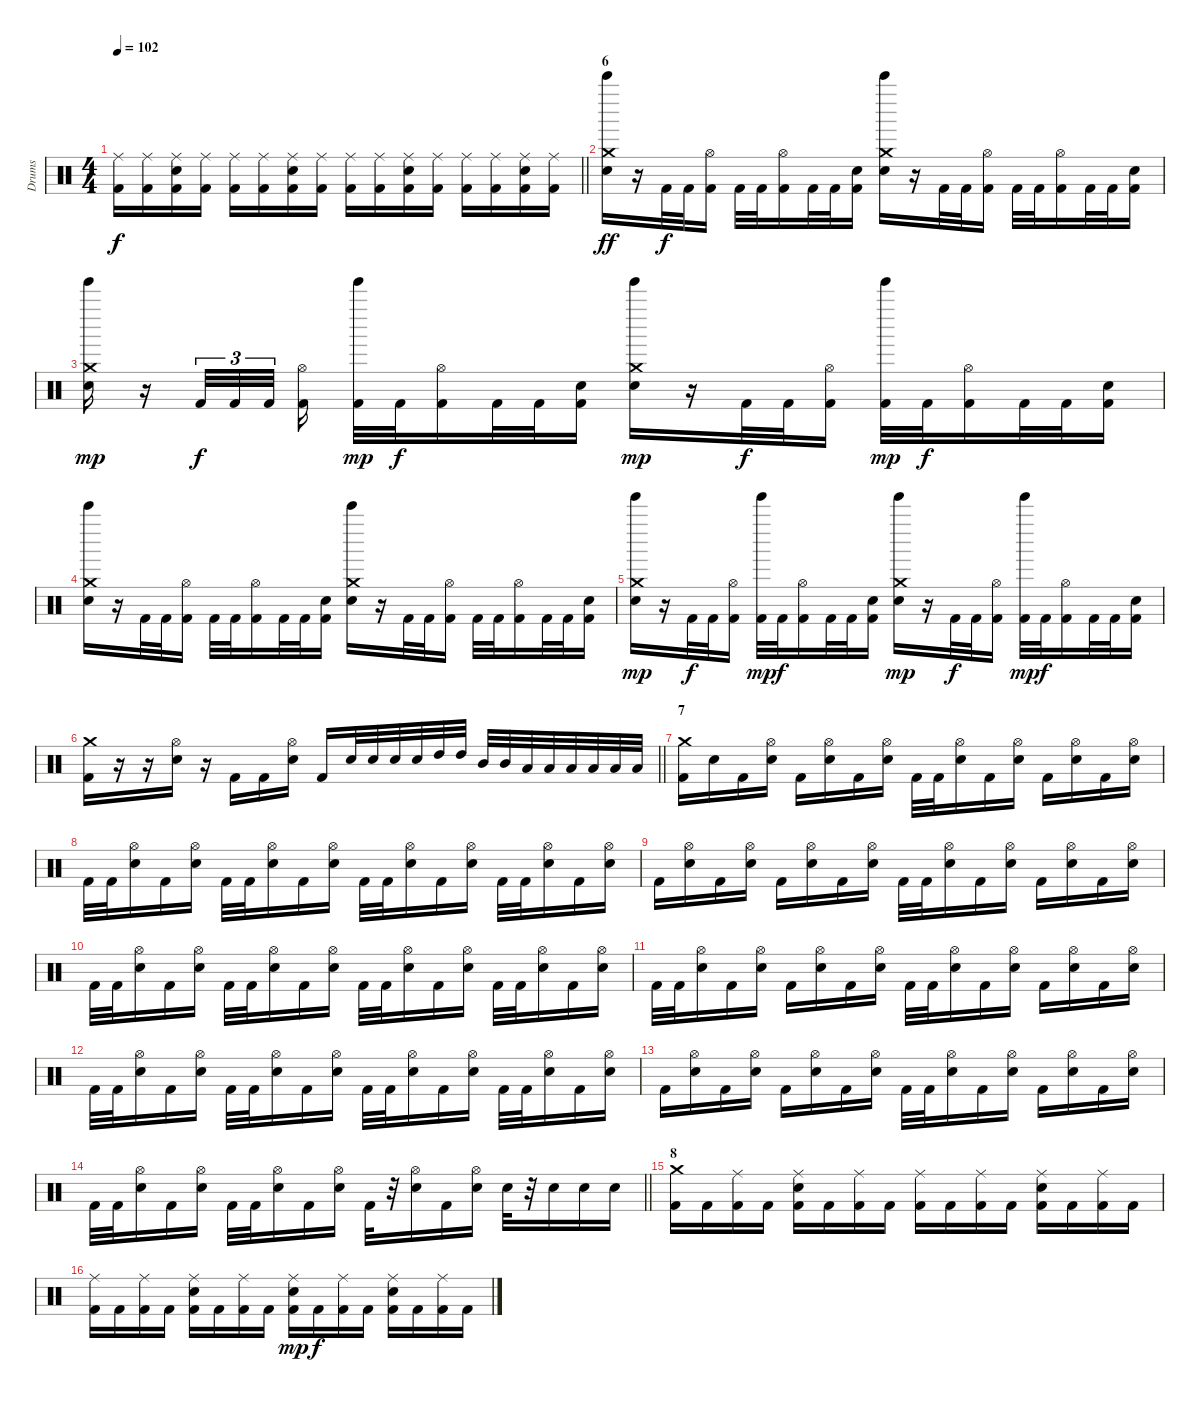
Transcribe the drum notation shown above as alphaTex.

\track ("Drums" "Drums") {instrument percussion}
\staff {score}
\articulation defaults
\ts (4 4)
\tempo 102
\clef neutral
\barLineRight lightlight
\ks c
("Ride (middle)" "Kick (hit) 2").16{dy f} ("Ride (middle)" "Kick (hit) 2").16 ("Ride (middle)" "Snare (hit) 2" "Kick (hit) 2").16 ("Ride (middle)" "Kick (hit) 2").16 ("Ride (middle)" "Kick (hit) 2").16 ("Ride (middle)" "Kick (hit) 2").16 ("Ride (middle)" "Snare (hit) 2" "Kick (hit) 2").16 ("Ride (middle)" "Kick (hit) 2").16 ("Ride (middle)" "Kick (hit) 2").16 ("Ride (middle)" "Kick (hit) 2").16 ("Ride (middle)" "Snare (hit) 2" "Kick (hit) 2").16 ("Ride (middle)" "Kick (hit) 2").16 ("Ride (middle)" "Kick (hit) 2").16 ("Ride (middle)" "Kick (hit) 2").16 ("Ride (middle)" "Snare (hit) 2" "Kick (hit) 2").16 ("Ride (middle)" "Kick (hit) 2").16 |
\section ("" "6")
("Crash medium (hit)" "Bell Tree (hit)" "Electric Snare (hit)").16{dy ff} r.16 "Kick (hit) 2".32{dy f} "Kick (hit) 2".32 ("Hi-Hat (open)" "Kick (hit) 2").16 "Kick (hit) 2".32 "Kick (hit) 2".32 ("Hi-Hat (open)" "Kick (hit) 2").16 "Kick (hit) 2".32 "Kick (hit) 2".32 ("Snare (hit) 2" "Kick (hit) 2").16 ("Crash medium (hit)" "Bell Tree (hit)" "Electric Snare (hit)").16 r.16 "Kick (hit) 2".32 "Kick (hit) 2".32 ("Hi-Hat (open)" "Kick (hit) 2").16 "Kick (hit) 2".32 "Kick (hit) 2".32 ("Hi-Hat (open)" "Kick (hit) 2").16 "Kick (hit) 2".32 "Kick (hit) 2".32 ("Snare (hit) 2" "Kick (hit) 2").16 |
("Crash medium (hit)" "Tinkle Bell (hit)" "Electric Snare (hit)").16{dy mp} r.16 "Kick (hit) 2".32{tu (3 2) dy f} "Kick (hit) 2".32{tu (3 2)} "Kick (hit) 2".32{tu (3 2) beam splitsecondary} ("Hi-Hat (open)" "Kick (hit) 2").16 ("Tinkle Bell (hit)" "Kick (hit) 2").32{dy mp} "Kick (hit) 2".32{dy f} ("Hi-Hat (open)" "Kick (hit) 2").16 "Kick (hit) 2".32 "Kick (hit) 2".32 ("Snare (hit) 2" "Kick (hit) 2").16 ("Crash medium (hit)" "Tinkle Bell (hit)" "Electric Snare (hit)").16{dy mp} r.16 "Kick (hit) 2".32{dy f} "Kick (hit) 2".32 ("Hi-Hat (open)" "Kick (hit) 2").16 ("Tinkle Bell (hit)" "Kick (hit) 2").32{dy mp} "Kick (hit) 2".32{dy f} ("Hi-Hat (open)" "Kick (hit) 2").16 "Kick (hit) 2".32 "Kick (hit) 2".32 ("Snare (hit) 2" "Kick (hit) 2").16 |
("Crash medium (hit)" "Bell Tree (hit)" "Electric Snare (hit)").16 r.16 "Kick (hit) 2".32 "Kick (hit) 2".32 ("Hi-Hat (open)" "Kick (hit) 2").16 "Kick (hit) 2".32 "Kick (hit) 2".32 ("Hi-Hat (open)" "Kick (hit) 2").16 "Kick (hit) 2".32 "Kick (hit) 2".32 ("Snare (hit) 2" "Kick (hit) 2").16 ("Crash medium (hit)" "Bell Tree (hit)" "Electric Snare (hit)").16 r.16 "Kick (hit) 2".32 "Kick (hit) 2".32 ("Hi-Hat (open)" "Kick (hit) 2").16 "Kick (hit) 2".32 "Kick (hit) 2".32 ("Hi-Hat (open)" "Kick (hit) 2").16 "Kick (hit) 2".32 "Kick (hit) 2".32 ("Snare (hit) 2" "Kick (hit) 2").16 |
("Crash medium (hit)" "Tinkle Bell (hit)" "Electric Snare (hit)").16{dy mp} r.16 "Kick (hit) 2".32{dy f} "Kick (hit) 2".32 ("Hi-Hat (open)" "Kick (hit) 2").16 ("Tinkle Bell (hit)" "Kick (hit) 2").32{dy mp} "Kick (hit) 2".32{dy f} ("Hi-Hat (open)" "Kick (hit) 2").16 "Kick (hit) 2".32 "Kick (hit) 2".32 ("Snare (hit) 2" "Kick (hit) 2").16 ("Crash medium (hit)" "Tinkle Bell (hit)" "Electric Snare (hit)").16{dy mp} r.16 "Kick (hit) 2".32{dy f} "Kick (hit) 2".32 ("Hi-Hat (open)" "Kick (hit) 2").16 ("Tinkle Bell (hit)" "Kick (hit) 2").32{dy mp} "Kick (hit) 2".32{dy f} ("Hi-Hat (open)" "Kick (hit) 2").16 "Kick (hit) 2".32 "Kick (hit) 2".32 ("Snare (hit) 2" "Kick (hit) 2").16 |
\barLineRight lightlight
("Crash medium (hit)" "Kick (hit) 2").16 r.16 r.16 ("Hi-Hat (open)" "Electric Snare (hit)").16 r.16 "Kick (hit) 2".16 "Kick (hit) 2".16 ("Hi-Hat (open)" "Electric Snare (hit)").16 "Kick (hit) 2".16 "Electric Snare (hit)".32 "Electric Snare (hit)".32 "Electric Snare (hit)".32 "Electric Snare (hit)".32 "High Tom (hit)".32 "High Tom (hit)".32 "Mid Tom (hit)".32 "Mid Tom (hit)".32 "Low Tom (hit)".32 "Low Tom (hit)".32 "Low Tom (hit)".32 "Low Floor Tom (hit)".32 "Low Floor Tom (hit)".32 "Low Floor Tom (hit)".32 |
\section ("" "7")
("Crash medium (hit)" "Kick (hit) 2").16 "Snare (hit) 2".16 "Kick (hit) 2".16 ("Hi-Hat (open)" "Snare (hit) 2").16 "Kick (hit) 2".16 ("Hi-Hat (open)" "Snare (hit) 2").16 "Kick (hit) 2".16 ("Hi-Hat (open)" "Snare (hit) 2").16 "Kick (hit) 2".32 "Kick (hit) 2".32 ("Hi-Hat (open)" "Snare (hit) 2").16 "Kick (hit) 2".16 ("Hi-Hat (open)" "Snare (hit) 2").16 "Kick (hit) 2".16 ("Hi-Hat (open)" "Snare (hit) 2").16 "Kick (hit) 2".16 ("Hi-Hat (open)" "Snare (hit) 2").16 |
"Kick (hit) 2".32 "Kick (hit) 2".32 ("Hi-Hat (open)" "Snare (hit) 2").16 "Kick (hit) 2".16 ("Hi-Hat (open)" "Snare (hit) 2").16 "Kick (hit) 2".32 "Kick (hit) 2".32 ("Hi-Hat (open)" "Snare (hit) 2").16 "Kick (hit) 2".16 ("Hi-Hat (open)" "Snare (hit) 2").16 "Kick (hit) 2".32 "Kick (hit) 2".32 ("Hi-Hat (open)" "Snare (hit) 2").16 "Kick (hit) 2".16 ("Hi-Hat (open)" "Snare (hit) 2").16 "Kick (hit) 2".32 "Kick (hit) 2".32 ("Hi-Hat (open)" "Snare (hit) 2").16 "Kick (hit) 2".16 ("Hi-Hat (open)" "Snare (hit) 2").16 |
"Kick (hit) 2".16 ("Hi-Hat (open)" "Snare (hit) 2").16 "Kick (hit) 2".16 ("Hi-Hat (open)" "Snare (hit) 2").16 "Kick (hit) 2".16 ("Hi-Hat (open)" "Snare (hit) 2").16 "Kick (hit) 2".16 ("Hi-Hat (open)" "Snare (hit) 2").16 "Kick (hit) 2".32 "Kick (hit) 2".32 ("Hi-Hat (open)" "Snare (hit) 2").16 "Kick (hit) 2".16 ("Hi-Hat (open)" "Snare (hit) 2").16 "Kick (hit) 2".16 ("Hi-Hat (open)" "Snare (hit) 2").16 "Kick (hit) 2".16 ("Hi-Hat (open)" "Snare (hit) 2").16 |
"Kick (hit) 2".32 "Kick (hit) 2".32 ("Hi-Hat (open)" "Snare (hit) 2").16 "Kick (hit) 2".16 ("Hi-Hat (open)" "Snare (hit) 2").16 "Kick (hit) 2".32 "Kick (hit) 2".32 ("Hi-Hat (open)" "Snare (hit) 2").16 "Kick (hit) 2".16 ("Hi-Hat (open)" "Snare (hit) 2").16 "Kick (hit) 2".32 "Kick (hit) 2".32 ("Hi-Hat (open)" "Snare (hit) 2").16 "Kick (hit) 2".16 ("Hi-Hat (open)" "Snare (hit) 2").16 "Kick (hit) 2".32 "Kick (hit) 2".32 ("Hi-Hat (open)" "Snare (hit) 2").16 "Kick (hit) 2".16 ("Hi-Hat (open)" "Snare (hit) 2").16 |
"Kick (hit) 2".32 "Kick (hit) 2".32 ("Hi-Hat (open)" "Snare (hit) 2").16 "Kick (hit) 2".16 ("Hi-Hat (open)" "Snare (hit) 2").16 "Kick (hit) 2".16 ("Hi-Hat (open)" "Snare (hit) 2").16 "Kick (hit) 2".16 ("Hi-Hat (open)" "Snare (hit) 2").16 "Kick (hit) 2".32 "Kick (hit) 2".32 ("Hi-Hat (open)" "Snare (hit) 2").16 "Kick (hit) 2".16 ("Hi-Hat (open)" "Snare (hit) 2").16 "Kick (hit) 2".16 ("Hi-Hat (open)" "Snare (hit) 2").16 "Kick (hit) 2".16 ("Hi-Hat (open)" "Snare (hit) 2").16 |
"Kick (hit) 2".32 "Kick (hit) 2".32 ("Hi-Hat (open)" "Snare (hit) 2").16 "Kick (hit) 2".16 ("Hi-Hat (open)" "Snare (hit) 2").16 "Kick (hit) 2".32 "Kick (hit) 2".32 ("Hi-Hat (open)" "Snare (hit) 2").16 "Kick (hit) 2".16 ("Hi-Hat (open)" "Snare (hit) 2").16 "Kick (hit) 2".32 "Kick (hit) 2".32 ("Hi-Hat (open)" "Snare (hit) 2").16 "Kick (hit) 2".16 ("Hi-Hat (open)" "Snare (hit) 2").16 "Kick (hit) 2".32 "Kick (hit) 2".32 ("Hi-Hat (open)" "Snare (hit) 2").16 "Kick (hit) 2".16 ("Hi-Hat (open)" "Snare (hit) 2").16 |
"Kick (hit) 2".16 ("Hi-Hat (open)" "Snare (hit) 2").16 "Kick (hit) 2".16 ("Hi-Hat (open)" "Snare (hit) 2").16 "Kick (hit) 2".16 ("Hi-Hat (open)" "Snare (hit) 2").16 "Kick (hit) 2".16 ("Hi-Hat (open)" "Snare (hit) 2").16 "Kick (hit) 2".32 "Kick (hit) 2".32 ("Hi-Hat (open)" "Snare (hit) 2").16 "Kick (hit) 2".16 ("Hi-Hat (open)" "Snare (hit) 2").16 "Kick (hit) 2".16 ("Hi-Hat (open)" "Snare (hit) 2").16 "Kick (hit) 2".16 ("Hi-Hat (open)" "Snare (hit) 2").16 |
\barLineRight lightlight "Kick (hit) 2".32 "Kick (hit) 2".32
("Hi-Hat (open)" "Snare (hit) 2").16 "Kick (hit) 2".16 ("Hi-Hat (open)" "Snare (hit) 2").16 "Kick (hit) 2".32 "Kick (hit) 2".32 ("Hi-Hat (open)" "Snare (hit) 2").16 "Kick (hit) 2".16 ("Hi-Hat (open)" "Snare (hit) 2").16 "Kick (hit) 2".32 r.32 ("Hi-Hat (open)" "Snare (hit) 2").16 "Kick (hit) 2".16 ("Hi-Hat (open)" "Snare (hit) 2").16 "Snare (hit) 2".32 r.32 "Snare (hit) 2".16 "Snare (hit) 2".16 "Snare (hit) 2".16 |
\section ("" "8")
("Crash medium (hit)" "Kick (hit) 2").16 "Kick (hit) 2".16 ("Ride (middle)" "Kick (hit) 2").16 "Kick (hit) 2".16 ("Ride (middle)" "Snare (hit) 2" "Kick (hit) 2").16 "Kick (hit) 2".16 ("Ride (middle)" "Kick (hit) 2").16 "Kick (hit) 2".16 ("Ride (middle)" "Kick (hit) 2").16 "Kick (hit) 2".16 ("Ride (middle)" "Kick (hit) 2").16 "Kick (hit) 2".16 ("Ride (middle)" "Snare (hit) 2" "Kick (hit) 2").16 "Kick (hit) 2".16 ("Ride (middle)" "Kick (hit) 2").16 "Kick (hit) 2".16 |
("Ride (middle)" "Kick (hit) 2").16 "Kick (hit) 2".16 ("Ride (middle)" "Kick (hit) 2").16 "Kick (hit) 2".16 ("Ride (middle)" "Snare (hit) 2" "Kick (hit) 2").16 "Kick (hit) 2".16 ("Ride (middle)" "Kick (hit) 2").16 "Kick (hit) 2".16 ("Ride (middle)" "Snare (hit) 2" "Kick (hit) 2").16{dy mp} "Kick (hit) 2".16{dy f} ("Ride (middle)" "Kick (hit) 2").16 "Kick (hit) 2".16 ("Ride (middle)" "Snare (hit) 2" "Kick (hit) 2").16 "Kick (hit) 2".16 ("Ride (middle)" "Kick (hit) 2").16 "Kick (hit) 2".16
